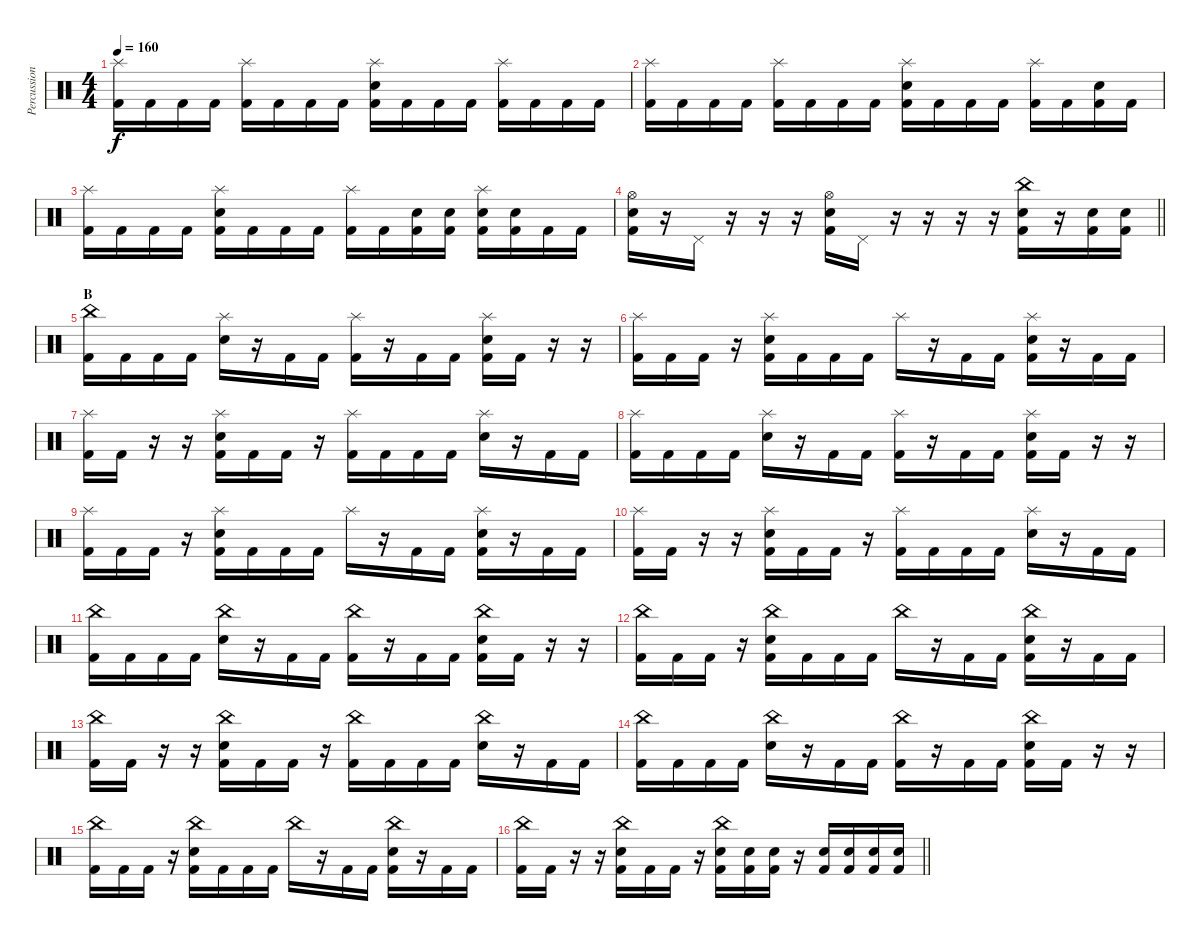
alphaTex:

\track ("Percussion" "Percussion") {instrument percussion}
\staff {score}
\articulation defaults
\ts (4 4)
\tempo 160
\clef neutral
\ks c
("Splash (hit)" "Kick (hit) 2").16{dy f} "Kick (hit) 2".16 "Kick (hit) 2".16 "Kick (hit) 2".16 ("Splash (hit)" "Kick (hit) 2").16 "Kick (hit) 2".16 "Kick (hit) 2".16 "Kick (hit) 2".16 ("Splash (hit)" "Electric Snare (hit)" "Kick (hit) 2").16 "Kick (hit) 2".16 "Kick (hit) 2".16 "Kick (hit) 2".16 ("Splash (hit)" "Kick (hit) 2").16 "Kick (hit) 2".16 "Kick (hit) 2".16 "Kick (hit) 2".16 |
("Splash (hit)" "Kick (hit) 2").16 "Kick (hit) 2".16 "Kick (hit) 2".16 "Kick (hit) 2".16 ("Splash (hit)" "Kick (hit) 2").16 "Kick (hit) 2".16 "Kick (hit) 2".16 "Kick (hit) 2".16 ("Splash (hit)" "Electric Snare (hit)" "Kick (hit) 2").16 "Kick (hit) 2".16 "Kick (hit) 2".16 "Kick (hit) 2".16 ("Splash (hit)" "Kick (hit) 2").16 "Kick (hit) 2".16 ("Electric Snare (hit)" "Kick (hit) 2").16 "Kick (hit) 2".16 |
("Splash (hit)" "Kick (hit) 2").16 "Kick (hit) 2".16 "Kick (hit) 2".16 "Kick (hit) 2".16 ("Splash (hit)" "Electric Snare (hit)" "Kick (hit) 2").16 "Kick (hit) 2".16 "Kick (hit) 2".16 "Kick (hit) 2".16 ("Splash (hit)" "Kick (hit) 2").16 "Kick (hit) 2".16 ("Electric Snare (hit)" "Kick (hit) 2").16 ("Electric Snare (hit)" "Kick (hit) 2").16 ("Splash (hit)" "Electric Snare (hit)" "Kick (hit) 2").16 ("Electric Snare (hit)" "Kick (hit) 2").16 "Kick (hit) 2".16 "Kick (hit) 2".16 |
\barLineRight lightlight
("Hi-Hat (open)" "Electric Snare (hit)" "Kick (hit) 2").16 r.16 "Pedal Hi-Hat (hit)".16 r.16 r.16 r.16 ("Hi-Hat (open)" "Electric Snare (hit)" "Kick (hit) 2").16 "Pedal Hi-Hat (hit)".16 r.16 r.16 r.16 r.16 ("China (hit)" "Electric Snare (hit)" "Kick (hit) 2").16 r.16 ("Electric Snare (hit)" "Kick (hit) 2").16 ("Electric Snare (hit)" "Kick (hit) 2").16 |
\section ("" "B")
("China (hit)" "Kick (hit) 2").16 "Kick (hit) 2".16 "Kick (hit) 2".16 "Kick (hit) 2".16 ("Splash (hit)" "Electric Snare (hit)").16 r.16 "Kick (hit) 2".16 "Kick (hit) 2".16 ("Splash (hit)" "Kick (hit) 2").16 r.16 "Kick (hit) 2".16 "Kick (hit) 2".16 ("Splash (hit)" "Electric Snare (hit)" "Kick (hit) 2").16 "Kick (hit) 2".16 r.16 r.16 |
("Splash (hit)" "Kick (hit) 2").16 "Kick (hit) 2".16 "Kick (hit) 2".16 r.16 ("Splash (hit)" "Electric Snare (hit)" "Kick (hit) 2").16 "Kick (hit) 2".16 "Kick (hit) 2".16 "Kick (hit) 2".16 "Splash (hit)".16 r.16 "Kick (hit) 2".16 "Kick (hit) 2".16 ("Splash (hit)" "Electric Snare (hit)" "Kick (hit) 2").16 r.16 "Kick (hit) 2".16 "Kick (hit) 2".16 |
("Splash (hit)" "Kick (hit) 2").16 "Kick (hit) 2".16 r.16 r.16 ("Splash (hit)" "Electric Snare (hit)" "Kick (hit) 2").16 "Kick (hit) 2".16 "Kick (hit) 2".16 r.16 ("Splash (hit)" "Kick (hit) 2").16 "Kick (hit) 2".16 "Kick (hit) 2".16 "Kick (hit) 2".16 ("Splash (hit)" "Electric Snare (hit)").16 r.16 "Kick (hit) 2".16 "Kick (hit) 2".16 |
("Splash (hit)" "Kick (hit) 2").16 "Kick (hit) 2".16 "Kick (hit) 2".16 "Kick (hit) 2".16 ("Splash (hit)" "Electric Snare (hit)").16 r.16 "Kick (hit) 2".16 "Kick (hit) 2".16 ("Splash (hit)" "Kick (hit) 2").16 r.16 "Kick (hit) 2".16 "Kick (hit) 2".16 ("Splash (hit)" "Electric Snare (hit)" "Kick (hit) 2").16 "Kick (hit) 2".16 r.16 r.16 |
("Splash (hit)" "Kick (hit) 2").16 "Kick (hit) 2".16 "Kick (hit) 2".16 r.16 ("Splash (hit)" "Electric Snare (hit)" "Kick (hit) 2").16 "Kick (hit) 2".16 "Kick (hit) 2".16 "Kick (hit) 2".16 "Splash (hit)".16 r.16 "Kick (hit) 2".16 "Kick (hit) 2".16 ("Splash (hit)" "Electric Snare (hit)" "Kick (hit) 2").16 r.16 "Kick (hit) 2".16 "Kick (hit) 2".16 |
("Splash (hit)" "Kick (hit) 2").16 "Kick (hit) 2".16 r.16 r.16 ("Splash (hit)" "Electric Snare (hit)" "Kick (hit) 2").16 "Kick (hit) 2".16 "Kick (hit) 2".16 r.16 ("Splash (hit)" "Kick (hit) 2").16 "Kick (hit) 2".16 "Kick (hit) 2".16 "Kick (hit) 2".16 ("Splash (hit)" "Electric Snare (hit)").16 r.16 "Kick (hit) 2".16 "Kick (hit) 2".16 |
("China (hit)" "Kick (hit) 2").16 "Kick (hit) 2".16 "Kick (hit) 2".16 "Kick (hit) 2".16 ("China (hit)" "Electric Snare (hit)").16 r.16 "Kick (hit) 2".16 "Kick (hit) 2".16 ("China (hit)" "Kick (hit) 2").16 r.16 "Kick (hit) 2".16 "Kick (hit) 2".16 ("China (hit)" "Electric Snare (hit)" "Kick (hit) 2").16 "Kick (hit) 2".16 r.16 r.16 |
("China (hit)" "Kick (hit) 2").16 "Kick (hit) 2".16 "Kick (hit) 2".16 r.16 ("China (hit)" "Electric Snare (hit)" "Kick (hit) 2").16 "Kick (hit) 2".16 "Kick (hit) 2".16 "Kick (hit) 2".16 "China (hit)".16 r.16 "Kick (hit) 2".16 "Kick (hit) 2".16 ("China (hit)" "Electric Snare (hit)" "Kick (hit) 2").16 r.16 "Kick (hit) 2".16 "Kick (hit) 2".16 |
("China (hit)" "Kick (hit) 2").16 "Kick (hit) 2".16 r.16 r.16 ("China (hit)" "Electric Snare (hit)" "Kick (hit) 2").16 "Kick (hit) 2".16 "Kick (hit) 2".16 r.16 ("China (hit)" "Kick (hit) 2").16 "Kick (hit) 2".16 "Kick (hit) 2".16 "Kick (hit) 2".16 ("China (hit)" "Electric Snare (hit)").16 r.16 "Kick (hit) 2".16 "Kick (hit) 2".16 |
("China (hit)" "Kick (hit) 2").16 "Kick (hit) 2".16 "Kick (hit) 2".16 "Kick (hit) 2".16 ("China (hit)" "Electric Snare (hit)").16 r.16 "Kick (hit) 2".16 "Kick (hit) 2".16 ("China (hit)" "Kick (hit) 2").16 r.16 "Kick (hit) 2".16 "Kick (hit) 2".16 ("China (hit)" "Electric Snare (hit)" "Kick (hit) 2").16 "Kick (hit) 2".16 r.16 r.16 |
("China (hit)" "Kick (hit) 2").16 "Kick (hit) 2".16 "Kick (hit) 2".16 r.16 ("China (hit)" "Electric Snare (hit)" "Kick (hit) 2").16 "Kick (hit) 2".16 "Kick (hit) 2".16 "Kick (hit) 2".16 "China (hit)".16 r.16 "Kick (hit) 2".16 "Kick (hit) 2".16 ("China (hit)" "Electric Snare (hit)" "Kick (hit) 2").16 r.16 "Kick (hit) 2".16 "Kick (hit) 2".16 |
\barLineRight lightlight
("China (hit)" "Kick (hit) 2").16 "Kick (hit) 2".16 r.16 r.16 ("China (hit)" "Electric Snare (hit)" "Kick (hit) 2").16 "Kick (hit) 2".16 "Kick (hit) 2".16 r.16 ("China (hit)" "Electric Snare (hit)" "Kick (hit) 2").16 ("Electric Snare (hit)" "Kick (hit) 2").16 ("Electric Snare (hit)" "Kick (hit) 2").16 r.16 ("Electric Snare (hit)" "Kick (hit) 2").16 ("Electric Snare (hit)" "Kick (hit) 2").16 ("Electric Snare (hit)" "Kick (hit) 2").16 ("Electric Snare (hit)" "Kick (hit) 2").16
